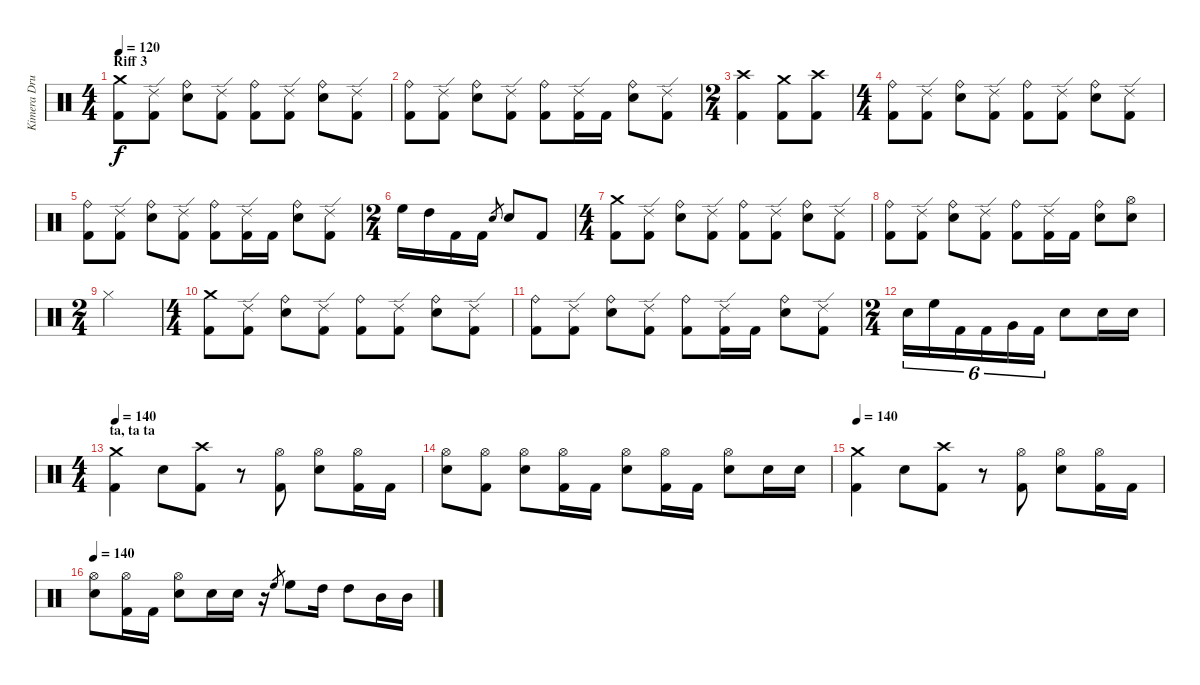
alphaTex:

\track ("Kimera Drummer" "Kimera Dru") {instrument percussion}
\staff {score}
\articulation defaults
\ts (4 4)
\section ("" "Riff 3")
\tempo 120
\clef neutral
\ks c
("Crash medium (hit)" "Kick (hit) 2").8{dy f} ("Ride (edge) 2" "Kick (hit) 2").8 ("Ride (bell)" "Electric Snare (hit)").8 ("Ride (edge) 2" "Kick (hit) 2").8 ("Ride (bell)" "Kick (hit) 2").8 ("Ride (edge) 2" "Kick (hit) 2").8 ("Ride (bell)" "Electric Snare (hit)").8 ("Ride (edge) 2" "Kick (hit) 2").8 |
("Ride (bell)" "Kick (hit) 2").8 ("Ride (edge) 2" "Kick (hit) 2").8 ("Ride (bell)" "Electric Snare (hit)").8 ("Ride (edge) 2" "Kick (hit) 2").8 ("Ride (bell)" "Kick (hit) 2").8 ("Ride (edge) 2" "Kick (hit) 2").16 "Kick (hit) 2".16 ("Ride (bell)" "Electric Snare (hit)").8 ("Ride (edge) 2" "Kick (hit) 2").8 |
\ts (2 4)
("Crash high (hit)" "Kick (hit) 2").4 ("Crash medium (hit)" "Kick (hit) 2").8 ("Crash high (hit)" "Kick (hit) 2").8 |
\ts (4 4)
("Ride (bell)" "Kick (hit) 2").8 ("Ride (edge) 2" "Kick (hit) 2").8 ("Ride (bell)" "Electric Snare (hit)").8 ("Ride (edge) 2" "Kick (hit) 2").8 ("Ride (bell)" "Kick (hit) 2").8 ("Ride (edge) 2" "Kick (hit) 2").8 ("Ride (bell)" "Electric Snare (hit)").8 ("Ride (edge) 2" "Kick (hit) 2").8 |
("Ride (bell)" "Kick (hit) 2").8 ("Ride (edge) 2" "Kick (hit) 2").8 ("Ride (bell)" "Electric Snare (hit)").8 ("Ride (edge) 2" "Kick (hit) 2").8 ("Ride (bell)" "Kick (hit) 2").8 ("Ride (edge) 2" "Kick (hit) 2").16 "Kick (hit) 2".16 ("Ride (bell)" "Electric Snare (hit)").8 ("Ride (edge) 2" "Kick (hit) 2").8 |
\ts (2 4)
"High Floor Tom (hit)".16 "High Tom (hit)".16 "Kick (hit) 2".16 "Kick (hit) 2".16 "Electric Snare (hit)".8{gr} "Electric Snare (hit)".8 "Kick (hit) 2".8 |
\ts (4 4)
("Crash medium (hit)" "Kick (hit) 2").8 ("Ride (edge) 2" "Kick (hit) 2").8 ("Ride (bell)" "Electric Snare (hit)").8 ("Ride (edge) 2" "Kick (hit) 2").8 ("Ride (bell)" "Kick (hit) 2").8 ("Ride (edge) 2" "Kick (hit) 2").8 ("Ride (bell)" "Electric Snare (hit)").8 ("Ride (edge) 2" "Kick (hit) 2").8 |
("Ride (bell)" "Kick (hit) 2").8 ("Ride (edge) 2" "Kick (hit) 2").8 ("Ride (bell)" "Electric Snare (hit)").8 ("Ride (edge) 2" "Kick (hit) 2").8 ("Ride (bell)" "Kick (hit) 2").8 ("Ride (edge) 2" "Kick (hit) 2").16 "Kick (hit) 2".16 ("Ride (bell)" "Electric Snare (hit)").8 ("Hi-Hat (open)" "Electric Snare (hit)").8 |
\ts (2 4)
"Hi-Hat (closed)".2 |
\ts (4 4)
("Crash medium (hit)" "Kick (hit) 2").8 ("Ride (edge) 2" "Kick (hit) 2").8 ("Ride (bell)" "Electric Snare (hit)").8 ("Ride (edge) 2" "Kick (hit) 2").8 ("Ride (bell)" "Kick (hit) 2").8 ("Ride (edge) 2" "Kick (hit) 2").8 ("Ride (bell)" "Electric Snare (hit)").8 ("Ride (edge) 2" "Kick (hit) 2").8 |
("Ride (bell)" "Kick (hit) 2").8 ("Ride (edge) 2" "Kick (hit) 2").8 ("Ride (bell)" "Electric Snare (hit)").8 ("Ride (edge) 2" "Kick (hit) 2").8 ("Ride (bell)" "Kick (hit) 2").8 ("Ride (edge) 2" "Kick (hit) 2").16 "Kick (hit) 2".16 ("Ride (bell)" "Electric Snare (hit)").8 ("Ride (edge) 2" "Kick (hit) 2").8 |
\ts (2 4)
"Electric Snare (hit)".16{tu (6 4)} "High Floor Tom (hit)".16{tu (6 4)} "Kick (hit) 2".16{tu (6 4)} "Kick (hit) 2".16{tu (6 4)} "Very Low Tom (hit)".16{tu (6 4)} "Kick (hit) 2".16{tu (6 4)} "Electric Snare (hit)".8 "Electric Snare (hit)".16 "Electric Snare (hit)".16 |
\ts (4 4)
\section ("" "ta, ta ta")
\tempo 140
("Crash medium (hit)" "Kick (hit) 2").4 "Electric Snare (hit)".8 ("Crash high (hit)" "Kick (hit) 2").8 r.8 ("Hi-Hat (open)" "Kick (hit) 2").8 ("Hi-Hat (open)" "Electric Snare (hit)").8 ("Hi-Hat (open)" "Kick (hit) 2").16 "Kick (hit) 2".16 |
("Hi-Hat (open)" "Electric Snare (hit)").8 ("Hi-Hat (open)" "Kick (hit) 2").8 ("Hi-Hat (open)" "Electric Snare (hit)").8 ("Hi-Hat (open)" "Kick (hit) 2").16 "Kick (hit) 2".16 ("Hi-Hat (open)" "Electric Snare (hit)").8 ("Hi-Hat (open)" "Kick (hit) 2").16 "Kick (hit) 2".16 ("Hi-Hat (open)" "Electric Snare (hit)").8 "Electric Snare (hit)".16 "Electric Snare (hit)".16 |
\tempo 140
("Crash medium (hit)" "Kick (hit) 2").4 "Electric Snare (hit)".8 ("Crash high (hit)" "Kick (hit) 2").8 r.8 ("Hi-Hat (open)" "Kick (hit) 2").8 ("Hi-Hat (open)" "Electric Snare (hit)").8 ("Hi-Hat (open)" "Kick (hit) 2").16 "Kick (hit) 2".16 |
\tempo 140
("Hi-Hat (open)" "Electric Snare (hit)").8 ("Hi-Hat (open)" "Kick (hit) 2").16 "Kick (hit) 2".16 ("Hi-Hat (open)" "Electric Snare (hit)").8 "Electric Snare (hit)".16 "Electric Snare (hit)".16 r.16 "High Floor Tom (hit)".8{gr} "High Floor Tom (hit)".8 "High Tom (hit)".16 "High Tom (hit)".8 "Mid Tom (hit)".16 "Mid Tom (hit)".16
